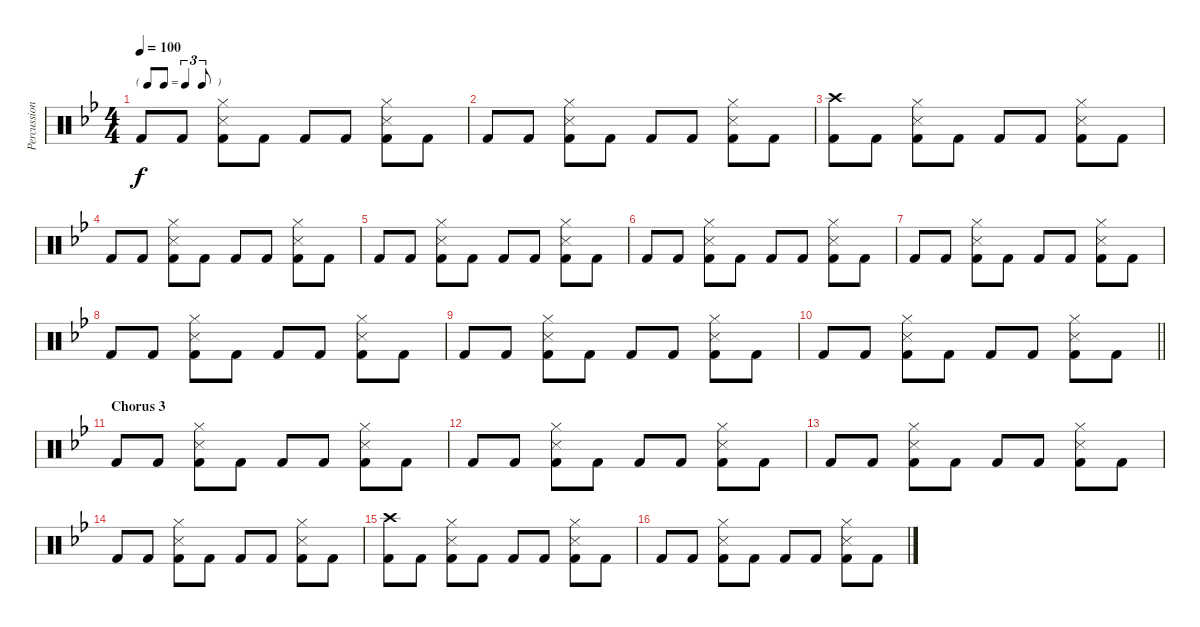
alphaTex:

\track ("Percussion" "Percussion") {instrument percussion}
\staff {score}
\articulation defaults
\ts (4 4)
\tf triplet8th
\tempo 100
\clef neutral
\ks bb "Kick (hit) 2".8{dy f} "Kick (hit) 2".8
("Snare (side stick) 3" "Hi-Hat (closed)" "Kick (hit) 2").8 "Kick (hit) 2".8 "Kick (hit) 2".8 "Kick (hit) 2".8 ("Snare (side stick) 3" "Hi-Hat (closed)" "Kick (hit) 2").8 "Kick (hit) 2".8 |
"Kick (hit) 2".8 "Kick (hit) 2".8 ("Snare (side stick) 3" "Hi-Hat (closed)" "Kick (hit) 2").8 "Kick (hit) 2".8 "Kick (hit) 2".8 "Kick (hit) 2".8 ("Snare (side stick) 3" "Hi-Hat (closed)" "Kick (hit) 2").8 "Kick (hit) 2".8 |
("Crash high (hit)" "Kick (hit) 2").8 "Kick (hit) 2".8 ("Snare (side stick) 3" "Hi-Hat (closed)" "Kick (hit) 2").8 "Kick (hit) 2".8 "Kick (hit) 2".8 "Kick (hit) 2".8 ("Snare (side stick) 3" "Hi-Hat (closed)" "Kick (hit) 2").8 "Kick (hit) 2".8 |
"Kick (hit) 2".8 "Kick (hit) 2".8 ("Snare (side stick) 3" "Hi-Hat (closed)" "Kick (hit) 2").8 "Kick (hit) 2".8 "Kick (hit) 2".8 "Kick (hit) 2".8 ("Snare (side stick) 3" "Hi-Hat (closed)" "Kick (hit) 2").8 "Kick (hit) 2".8 |
"Kick (hit) 2".8 "Kick (hit) 2".8 ("Snare (side stick) 3" "Hi-Hat (closed)" "Kick (hit) 2").8 "Kick (hit) 2".8 "Kick (hit) 2".8 "Kick (hit) 2".8 ("Snare (side stick) 3" "Hi-Hat (closed)" "Kick (hit) 2").8 "Kick (hit) 2".8 |
"Kick (hit) 2".8 "Kick (hit) 2".8 ("Snare (side stick) 3" "Hi-Hat (closed)" "Kick (hit) 2").8 "Kick (hit) 2".8 "Kick (hit) 2".8 "Kick (hit) 2".8 ("Snare (side stick) 3" "Hi-Hat (closed)" "Kick (hit) 2").8 "Kick (hit) 2".8 |
"Kick (hit) 2".8 "Kick (hit) 2".8 ("Snare (side stick) 3" "Hi-Hat (closed)" "Kick (hit) 2").8 "Kick (hit) 2".8 "Kick (hit) 2".8 "Kick (hit) 2".8 ("Snare (side stick) 3" "Hi-Hat (closed)" "Kick (hit) 2").8 "Kick (hit) 2".8 |
"Kick (hit) 2".8 "Kick (hit) 2".8 ("Snare (side stick) 3" "Hi-Hat (closed)" "Kick (hit) 2").8 "Kick (hit) 2".8 "Kick (hit) 2".8 "Kick (hit) 2".8 ("Snare (side stick) 3" "Hi-Hat (closed)" "Kick (hit) 2").8 "Kick (hit) 2".8 |
"Kick (hit) 2".8 "Kick (hit) 2".8 ("Snare (side stick) 3" "Hi-Hat (closed)" "Kick (hit) 2").8 "Kick (hit) 2".8 "Kick (hit) 2".8 "Kick (hit) 2".8 ("Snare (side stick) 3" "Hi-Hat (closed)" "Kick (hit) 2").8 "Kick (hit) 2".8 |
\barLineRight lightlight "Kick (hit) 2".8 "Kick (hit) 2".8
("Snare (side stick) 3" "Hi-Hat (closed)" "Kick (hit) 2").8 "Kick (hit) 2".8 "Kick (hit) 2".8 "Kick (hit) 2".8 ("Snare (side stick) 3" "Hi-Hat (closed)" "Kick (hit) 2").8 "Kick (hit) 2".8 |
\section ("" "Chorus 3")
"Kick (hit) 2".8 "Kick (hit) 2".8 ("Snare (side stick) 3" "Hi-Hat (closed)" "Kick (hit) 2").8 "Kick (hit) 2".8 "Kick (hit) 2".8 "Kick (hit) 2".8 ("Snare (side stick) 3" "Hi-Hat (closed)" "Kick (hit) 2").8 "Kick (hit) 2".8 |
"Kick (hit) 2".8 "Kick (hit) 2".8 ("Snare (side stick) 3" "Hi-Hat (closed)" "Kick (hit) 2").8 "Kick (hit) 2".8 "Kick (hit) 2".8 "Kick (hit) 2".8 ("Snare (side stick) 3" "Hi-Hat (closed)" "Kick (hit) 2").8 "Kick (hit) 2".8 |
"Kick (hit) 2".8 "Kick (hit) 2".8 ("Snare (side stick) 3" "Hi-Hat (closed)" "Kick (hit) 2").8 "Kick (hit) 2".8 "Kick (hit) 2".8 "Kick (hit) 2".8 ("Snare (side stick) 3" "Hi-Hat (closed)" "Kick (hit) 2").8 "Kick (hit) 2".8 |
"Kick (hit) 2".8 "Kick (hit) 2".8 ("Snare (side stick) 3" "Hi-Hat (closed)" "Kick (hit) 2").8 "Kick (hit) 2".8 "Kick (hit) 2".8 "Kick (hit) 2".8 ("Snare (side stick) 3" "Hi-Hat (closed)" "Kick (hit) 2").8 "Kick (hit) 2".8 |
("Crash high (hit)" "Kick (hit) 2").8 "Kick (hit) 2".8 ("Snare (side stick) 3" "Hi-Hat (closed)" "Kick (hit) 2").8 "Kick (hit) 2".8 "Kick (hit) 2".8 "Kick (hit) 2".8 ("Snare (side stick) 3" "Hi-Hat (closed)" "Kick (hit) 2").8 "Kick (hit) 2".8 |
"Kick (hit) 2".8 "Kick (hit) 2".8 ("Snare (side stick) 3" "Hi-Hat (closed)" "Kick (hit) 2").8 "Kick (hit) 2".8 "Kick (hit) 2".8 "Kick (hit) 2".8 ("Snare (side stick) 3" "Hi-Hat (closed)" "Kick (hit) 2").8 "Kick (hit) 2".8
